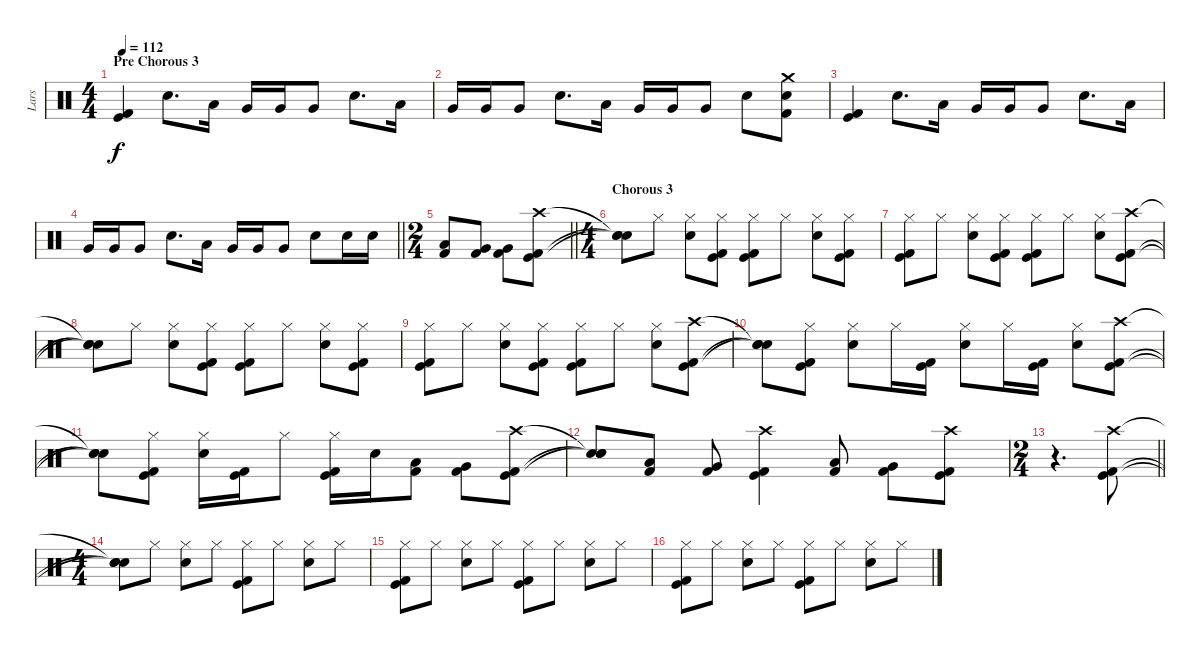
\track ("Lars" "Lars") {instrument percussion}
\staff {score}
\articulation defaults
\ts (4 4)
\section ("" "Pre Chorous 3")
\tempo 112
\clef neutral
\ks c
("Kick (hit)" "Kick (hit) 2").4{dy f} "Electric Snare (hit)".8{d} "Low Tom (hit)".16 "Very Low Tom (hit)".16 "Very Low Tom (hit)".16 "Very Low Tom (hit)".8 "Electric Snare (hit)".8{d} "Low Tom (hit)".16 |
"Very Low Tom (hit)".16 "Very Low Tom (hit)".16 "Very Low Tom (hit)".8 "Electric Snare (hit)".8{d} "Low Tom (hit)".16 "Very Low Tom (hit)".16 "Very Low Tom (hit)".16 "Very Low Tom (hit)".8 "Electric Snare (hit)".8 ("Crash medium (hit)" "Electric Snare (hit)" "Kick (hit) 2").8 |
("Kick (hit)" "Kick (hit) 2").4 "Electric Snare (hit)".8{d} "Low Tom (hit)".16 "Very Low Tom (hit)".16 "Very Low Tom (hit)".16 "Very Low Tom (hit)".8 "Electric Snare (hit)".8{d} "Low Tom (hit)".16 |
\barLineRight lightlight "Very Low Tom (hit)".16 "Very Low Tom (hit)".16 "Very Low Tom (hit)".8 "Electric Snare (hit)".8{d} "Low Tom (hit)".16 "Very Low Tom (hit)".16 "Very Low Tom (hit)".16 "Very Low Tom (hit)".8 "Electric Snare (hit)".8 "Electric Snare (hit)".16 "Electric Snare (hit)".16
|
\ts (2 4)
\barLineRight lightlight
("Kick (hit) 2" "Low Tom (hit)").8 ("Kick (hit) 2" "Very Low Tom (hit)").8 ("Kick (hit) 2" "Very Low Tom (hit)").8 ("Crash high (hit)" "Kick (hit)" "Kick (hit) 2").8 |
\ts (4 4)
\section ("" "Chorous 3")
("Snare (hit)"{t} "Snare (hit)"{t} "Snare (hit)"{t}).8 "Hi-Hat (closed)".8 ("Hi-Hat (closed)" "Electric Snare (hit)").8 ("Hi-Hat (closed)" "Kick (hit)" "Kick (hit) 2").8 ("Hi-Hat (closed)" "Kick (hit)" "Kick (hit) 2").8 "Hi-Hat (closed)".8 ("Hi-Hat (closed)" "Electric Snare (hit)").8 ("Hi-Hat (closed)" "Kick (hit)" "Kick (hit) 2").8 |
("Hi-Hat (closed)" "Kick (hit)" "Kick (hit) 2").8 "Hi-Hat (closed)".8 ("Hi-Hat (closed)" "Electric Snare (hit)").8 ("Hi-Hat (closed)" "Kick (hit)" "Kick (hit) 2").8 ("Hi-Hat (closed)" "Kick (hit)" "Kick (hit) 2").8 "Hi-Hat (closed)".8 ("Hi-Hat (closed)" "Electric Snare (hit)").8 ("Crash high (hit)" "Kick (hit)" "Kick (hit) 2").8 |
("Snare (hit)"{t} "Snare (hit)"{t} "Snare (hit)"{t}).8 "Hi-Hat (closed)".8 ("Hi-Hat (closed)" "Electric Snare (hit)").8 ("Hi-Hat (closed)" "Kick (hit)" "Kick (hit) 2").8 ("Hi-Hat (closed)" "Kick (hit)" "Kick (hit) 2").8 "Hi-Hat (closed)".8 ("Hi-Hat (closed)" "Electric Snare (hit)").8 ("Hi-Hat (closed)" "Kick (hit)" "Kick (hit) 2").8 |
("Hi-Hat (closed)" "Kick (hit)" "Kick (hit) 2").8 "Hi-Hat (closed)".8 ("Hi-Hat (closed)" "Electric Snare (hit)").8 ("Hi-Hat (closed)" "Kick (hit)" "Kick (hit) 2").8 ("Hi-Hat (closed)" "Kick (hit)" "Kick (hit) 2").8 "Hi-Hat (closed)".8 ("Hi-Hat (closed)" "Electric Snare (hit)").8 ("Crash high (hit)" "Kick (hit)" "Kick (hit) 2").8 |
("Snare (hit)"{t} "Snare (hit)"{t} "Snare (hit)"{t}).8 ("Hi-Hat (closed)" "Kick (hit)" "Kick (hit) 2").8 ("Hi-Hat (closed)" "Electric Snare (hit)").8 "Hi-Hat (closed)".16 ("Kick (hit)" "Kick (hit) 2").16 ("Hi-Hat (closed)" "Electric Snare (hit)").8 "Hi-Hat (closed)".16 ("Kick (hit)" "Kick (hit) 2").16 ("Hi-Hat (closed)" "Electric Snare (hit)").8 ("Crash high (hit)" "Kick (hit)" "Kick (hit) 2").8 |
("Snare (hit)"{t} "Snare (hit)"{t} "Snare (hit)"{t}).8 ("Hi-Hat (closed)" "Kick (hit)" "Kick (hit) 2").8 ("Hi-Hat (closed)" "Electric Snare (hit)").16 ("Kick (hit)" "Kick (hit) 2").16 "Hi-Hat (closed)".8 ("Hi-Hat (closed)" "Kick (hit)" "Kick (hit) 2").16 "Electric Snare (hit)".16 ("Kick (hit) 2" "Low Tom (hit)").8 ("Kick (hit) 2" "Very Low Tom (hit)").8 ("Crash high (hit)" "Kick (hit)" "Kick (hit) 2").8 |
("Snare (hit)"{t} "Snare (hit)"{t} "Snare (hit)"{t}).8 ("Kick (hit) 2" "Low Tom (hit)").8 ("Kick (hit) 2" "Very Low Tom (hit)").8 ("Crash high (hit)" "Kick (hit)" "Kick (hit) 2").4 ("Kick (hit) 2" "Low Tom (hit)").8 ("Kick (hit) 2" "Very Low Tom (hit)").8 ("Crash high (hit)" "Kick (hit)" "Kick (hit) 2").8 |
\ts (2 4)
\barLineRight lightlight
r.4{d} ("Crash high (hit)" "Kick (hit)" "Kick (hit) 2").8 |
\ts (4 4)
\section ("" "")
("Snare (hit)"{t} "Snare (hit)"{t} "Snare (hit)"{t}).8 "Hi-Hat (closed)".8 ("Hi-Hat (closed)" "Electric Snare (hit)").8 "Hi-Hat (closed)".8 ("Hi-Hat (closed)" "Kick (hit)" "Kick (hit) 2").8 "Hi-Hat (closed)".8 ("Hi-Hat (closed)" "Electric Snare (hit)").8 "Hi-Hat (closed)".8 |
("Hi-Hat (closed)" "Kick (hit)" "Kick (hit) 2").8 "Hi-Hat (closed)".8 ("Hi-Hat (closed)" "Electric Snare (hit)").8 "Hi-Hat (closed)".8 ("Hi-Hat (closed)" "Kick (hit)" "Kick (hit) 2").8 "Hi-Hat (closed)".8 ("Hi-Hat (closed)" "Electric Snare (hit)").8 "Hi-Hat (closed)".8 |
("Hi-Hat (closed)" "Kick (hit)" "Kick (hit) 2").8 "Hi-Hat (closed)".8 ("Hi-Hat (closed)" "Electric Snare (hit)").8 "Hi-Hat (closed)".8 ("Hi-Hat (closed)" "Kick (hit)" "Kick (hit) 2").8 "Hi-Hat (closed)".8 ("Hi-Hat (closed)" "Electric Snare (hit)").8 "Hi-Hat (closed)".8
